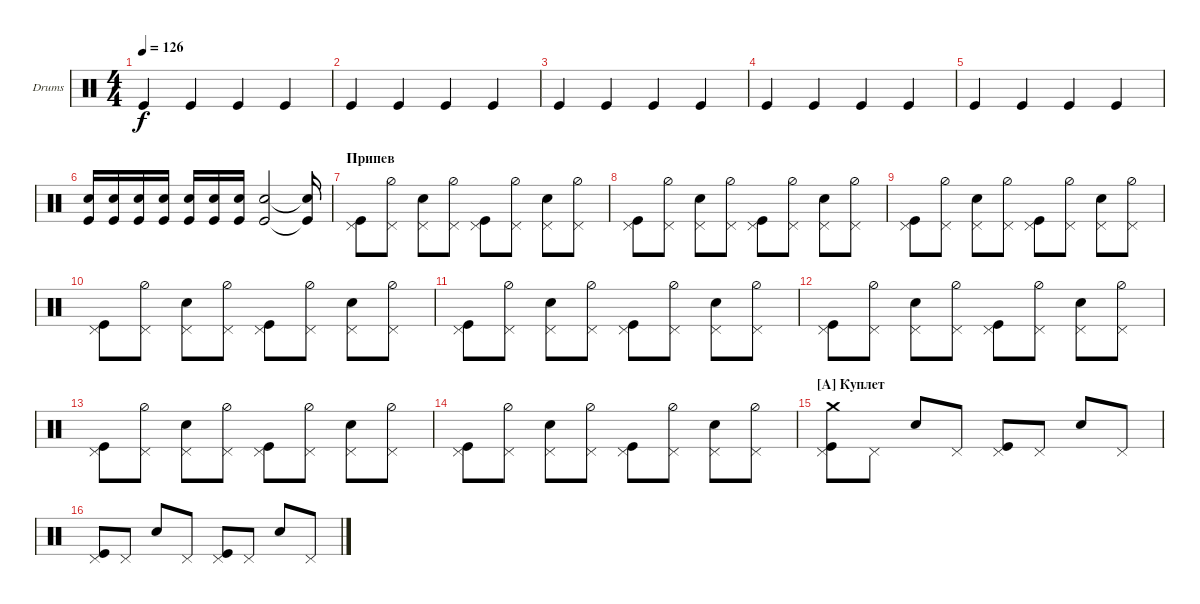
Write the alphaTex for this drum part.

\defaultSystemsLayout 4
\bracketExtendMode groupsimilarinstruments
\firstSystemTrackNameOrientation horizontal
\otherSystemsTrackNameOrientation horizontal
\track ("Е. Кулаков" "Drums") {instrument percussion}
\staff {score}
\articulation defaults
\ts (4 4)
\tempo 126
\clef neutral
\ks c "Kick (hit)".4{dy f} "Kick (hit)".4 "Kick (hit)".4 "Kick (hit)".4
|
"Kick (hit)".4 "Kick (hit)".4 "Kick (hit)".4 "Kick (hit)".4 |
"Kick (hit)".4 "Kick (hit)".4 "Kick (hit)".4 "Kick (hit)".4 |
"Kick (hit)".4 "Kick (hit)".4 "Kick (hit)".4 "Kick (hit)".4 |
"Kick (hit)".4 "Kick (hit)".4 "Kick (hit)".4 "Kick (hit)".4 |
("Kick (hit)" "Snare (hit) 2").16 ("Kick (hit)" "Snare (hit) 2").16 ("Kick (hit)" "Snare (hit) 2").16 ("Kick (hit)" "Snare (hit) 2").16 ("Kick (hit)" "Snare (hit) 2").16 ("Kick (hit)" "Snare (hit) 2").16 ("Kick (hit)" "Snare (hit) 2").16 ("Kick (hit)" "Snare (hit) 2").2 ("Kick (hit)"{t} "Snare (hit) 2"{t}).16 |
\section ("" "Припев")
("Kick (hit)" "Pedal Hi-Hat (hit)").8 ("Hi-Hat (half)" "Pedal Hi-Hat (hit)").8 ("Pedal Hi-Hat (hit)" "Snare (hit) 2").8 ("Hi-Hat (half)" "Pedal Hi-Hat (hit)").8 ("Kick (hit)" "Pedal Hi-Hat (hit)").8 ("Hi-Hat (half)" "Pedal Hi-Hat (hit)").8 ("Pedal Hi-Hat (hit)" "Snare (hit) 2").8 ("Hi-Hat (half)" "Pedal Hi-Hat (hit)").8 |
("Kick (hit)" "Pedal Hi-Hat (hit)").8 ("Hi-Hat (half)" "Pedal Hi-Hat (hit)").8 ("Pedal Hi-Hat (hit)" "Snare (hit) 2").8 ("Hi-Hat (half)" "Pedal Hi-Hat (hit)").8 ("Kick (hit)" "Pedal Hi-Hat (hit)").8 ("Hi-Hat (half)" "Pedal Hi-Hat (hit)").8 ("Pedal Hi-Hat (hit)" "Snare (hit) 2").8 ("Hi-Hat (half)" "Pedal Hi-Hat (hit)").8 |
("Kick (hit)" "Pedal Hi-Hat (hit)").8 ("Hi-Hat (half)" "Pedal Hi-Hat (hit)").8 ("Pedal Hi-Hat (hit)" "Snare (hit) 2").8 ("Hi-Hat (half)" "Pedal Hi-Hat (hit)").8 ("Kick (hit)" "Pedal Hi-Hat (hit)").8 ("Hi-Hat (half)" "Pedal Hi-Hat (hit)").8 ("Pedal Hi-Hat (hit)" "Snare (hit) 2").8 ("Hi-Hat (half)" "Pedal Hi-Hat (hit)").8 |
("Kick (hit)" "Pedal Hi-Hat (hit)").8 ("Hi-Hat (half)" "Pedal Hi-Hat (hit)").8 ("Pedal Hi-Hat (hit)" "Snare (hit) 2").8 ("Hi-Hat (half)" "Pedal Hi-Hat (hit)").8 ("Kick (hit)" "Pedal Hi-Hat (hit)").8 ("Hi-Hat (half)" "Pedal Hi-Hat (hit)").8 ("Pedal Hi-Hat (hit)" "Snare (hit) 2").8 ("Hi-Hat (half)" "Pedal Hi-Hat (hit)").8 |
("Kick (hit)" "Pedal Hi-Hat (hit)").8 ("Hi-Hat (half)" "Pedal Hi-Hat (hit)").8 ("Pedal Hi-Hat (hit)" "Snare (hit) 2").8 ("Hi-Hat (half)" "Pedal Hi-Hat (hit)").8 ("Kick (hit)" "Pedal Hi-Hat (hit)").8 ("Hi-Hat (half)" "Pedal Hi-Hat (hit)").8 ("Pedal Hi-Hat (hit)" "Snare (hit) 2").8 ("Hi-Hat (half)" "Pedal Hi-Hat (hit)").8 |
("Kick (hit)" "Pedal Hi-Hat (hit)").8 ("Hi-Hat (half)" "Pedal Hi-Hat (hit)").8 ("Pedal Hi-Hat (hit)" "Snare (hit) 2").8 ("Hi-Hat (half)" "Pedal Hi-Hat (hit)").8 ("Kick (hit)" "Pedal Hi-Hat (hit)").8 ("Hi-Hat (half)" "Pedal Hi-Hat (hit)").8 ("Pedal Hi-Hat (hit)" "Snare (hit) 2").8 ("Hi-Hat (half)" "Pedal Hi-Hat (hit)").8 |
("Kick (hit)" "Pedal Hi-Hat (hit)").8 ("Hi-Hat (half)" "Pedal Hi-Hat (hit)").8 ("Pedal Hi-Hat (hit)" "Snare (hit) 2").8 ("Hi-Hat (half)" "Pedal Hi-Hat (hit)").8 ("Kick (hit)" "Pedal Hi-Hat (hit)").8 ("Hi-Hat (half)" "Pedal Hi-Hat (hit)").8 ("Pedal Hi-Hat (hit)" "Snare (hit) 2").8 ("Hi-Hat (half)" "Pedal Hi-Hat (hit)").8 |
("Kick (hit)" "Pedal Hi-Hat (hit)").8 ("Hi-Hat (half)" "Pedal Hi-Hat (hit)").8 ("Pedal Hi-Hat (hit)" "Snare (hit) 2").8 ("Hi-Hat (half)" "Pedal Hi-Hat (hit)").8 ("Kick (hit)" "Pedal Hi-Hat (hit)").8 ("Hi-Hat (half)" "Pedal Hi-Hat (hit)").8 ("Pedal Hi-Hat (hit)" "Snare (hit) 2").8 ("Hi-Hat (half)" "Pedal Hi-Hat (hit)").8 |
\section ("A" "Куплет")
("Kick (hit)" "Pedal Hi-Hat (hit)" "Crash medium (hit)").8 "Pedal Hi-Hat (hit)".8 "Snare (hit) 2".8 "Pedal Hi-Hat (hit)".8 ("Kick (hit)" "Pedal Hi-Hat (hit)").8 "Pedal Hi-Hat (hit)".8 "Snare (hit) 2".8 "Pedal Hi-Hat (hit)".8 |
("Kick (hit)" "Pedal Hi-Hat (hit)").8 "Pedal Hi-Hat (hit)".8 "Snare (hit) 2".8 "Pedal Hi-Hat (hit)".8 ("Kick (hit)" "Pedal Hi-Hat (hit)").8 "Pedal Hi-Hat (hit)".8 "Snare (hit) 2".8 "Pedal Hi-Hat (hit)".8
